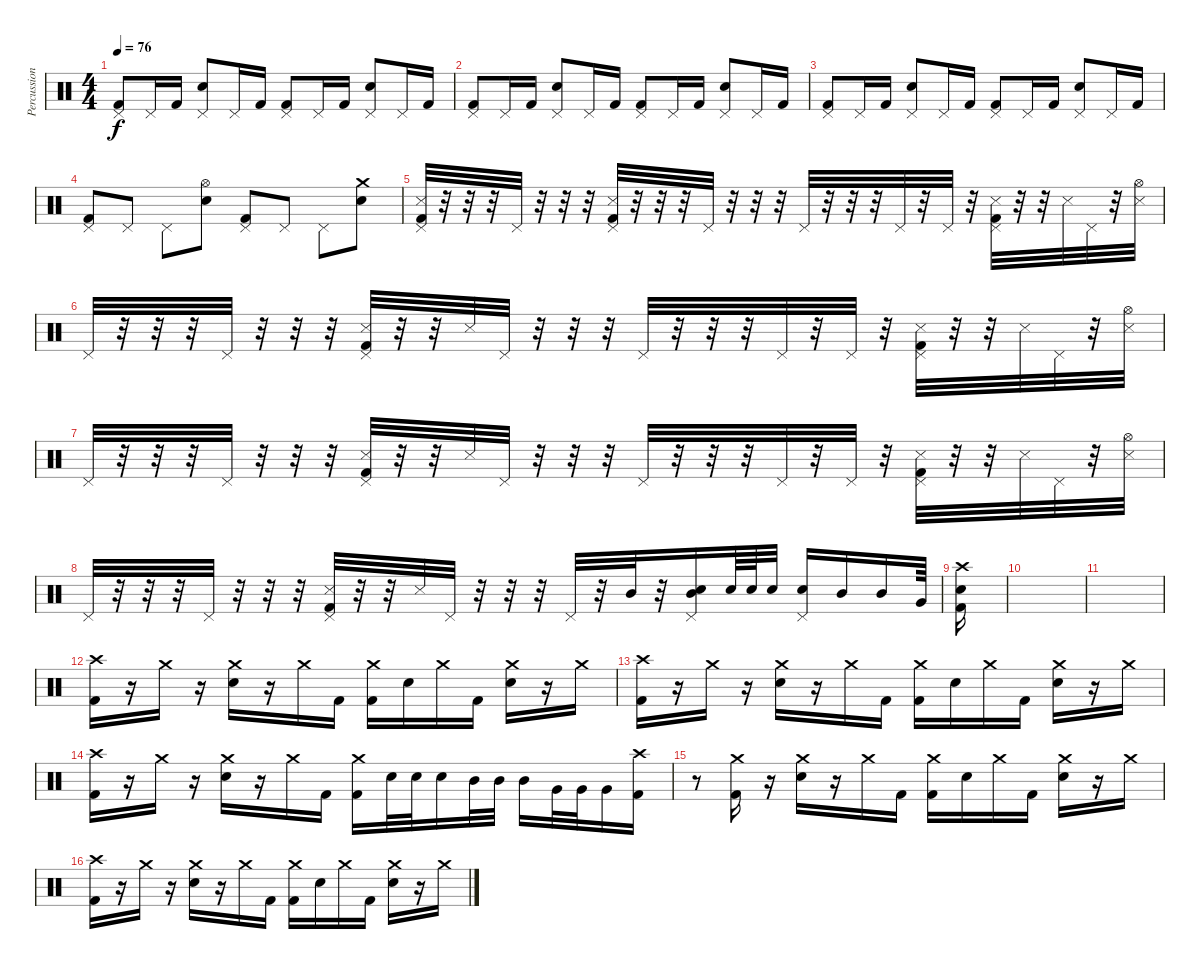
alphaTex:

\track ("Percussion" "Percussion") {instrument percussion}
\staff {score}
\articulation defaults
\ts (4 4)
\tempo 76
\clef neutral
\ks c
("Pedal Hi-Hat (hit)" "Kick (hit) 2").8{dy f} "Pedal Hi-Hat (hit)".16 "Kick (hit) 2".16 ("Pedal Hi-Hat (hit)" "Electric Snare (hit)").8 "Pedal Hi-Hat (hit)".16 "Kick (hit) 2".16 ("Pedal Hi-Hat (hit)" "Kick (hit) 2").8 "Pedal Hi-Hat (hit)".16 "Kick (hit) 2".16 ("Pedal Hi-Hat (hit)" "Electric Snare (hit)").8 "Pedal Hi-Hat (hit)".16 "Kick (hit) 2".16 |
("Pedal Hi-Hat (hit)" "Kick (hit) 2").8 "Pedal Hi-Hat (hit)".16 "Kick (hit) 2".16 ("Pedal Hi-Hat (hit)" "Electric Snare (hit)").8 "Pedal Hi-Hat (hit)".16 "Kick (hit) 2".16 ("Pedal Hi-Hat (hit)" "Kick (hit) 2").8 "Pedal Hi-Hat (hit)".16 "Kick (hit) 2".16 ("Pedal Hi-Hat (hit)" "Electric Snare (hit)").8 "Pedal Hi-Hat (hit)".16 "Kick (hit) 2".16 |
("Pedal Hi-Hat (hit)" "Kick (hit) 2").8 "Pedal Hi-Hat (hit)".16 "Kick (hit) 2".16 ("Pedal Hi-Hat (hit)" "Electric Snare (hit)").8 "Pedal Hi-Hat (hit)".16 "Kick (hit) 2".16 ("Pedal Hi-Hat (hit)" "Kick (hit) 2").8 "Pedal Hi-Hat (hit)".16 "Kick (hit) 2".16 ("Pedal Hi-Hat (hit)" "Electric Snare (hit)").8 "Pedal Hi-Hat (hit)".16 "Kick (hit) 2".16 |
("Pedal Hi-Hat (hit)" "Kick (hit) 2").8 "Pedal Hi-Hat (hit)".8 "Pedal Hi-Hat (hit)".8 ("Hi-Hat (open)" "Electric Snare (hit)").8 ("Pedal Hi-Hat (hit)" "Kick (hit) 2").8 "Pedal Hi-Hat (hit)".8 "Pedal Hi-Hat (hit)".8 ("Crash medium (hit)" "Electric Snare (hit)").8 |
("Pedal Hi-Hat (hit)" "Metronome (hit)" "Kick (hit) 2").32 r.32 r.32 r.32 "Pedal Hi-Hat (hit)".32 r.32 r.32 r.32 ("Pedal Hi-Hat (hit)" "Metronome (hit)" "Kick (hit) 2").32 r.32 r.32 r.32 "Pedal Hi-Hat (hit)".32 r.32 r.32 r.32 "Pedal Hi-Hat (hit)".32 r.32 r.32 r.32 "Pedal Hi-Hat (hit)".32 r.32 "Pedal Hi-Hat (hit)".32 r.32 ("Pedal Hi-Hat (hit)" "Metronome (hit)" "Kick (hit) 2").32 r.32 r.32 "Metronome (hit)".32 "Pedal Hi-Hat (hit)".32 r.32 ("Hi-Hat (open)" "Metronome (hit)").32 |
"Pedal Hi-Hat (hit)".32 r.32 r.32 r.32 "Pedal Hi-Hat (hit)".32 r.32 r.32 r.32 ("Pedal Hi-Hat (hit)" "Metronome (hit)" "Kick (hit) 2").32 r.32 r.32 "Metronome (hit)".32 "Pedal Hi-Hat (hit)".32 r.32 r.32 r.32 "Pedal Hi-Hat (hit)".32 r.32 r.32 r.32 "Pedal Hi-Hat (hit)".32 r.32 "Pedal Hi-Hat (hit)".32 r.32 ("Pedal Hi-Hat (hit)" "Metronome (hit)" "Kick (hit) 2").32 r.32 r.32 "Metronome (hit)".32 "Pedal Hi-Hat (hit)".32 r.32 ("Hi-Hat (open)" "Metronome (hit)").32 |
"Pedal Hi-Hat (hit)".32 r.32 r.32 r.32 "Pedal Hi-Hat (hit)".32 r.32 r.32 r.32 ("Pedal Hi-Hat (hit)" "Metronome (hit)" "Kick (hit) 2").32 r.32 r.32 "Metronome (hit)".32 "Pedal Hi-Hat (hit)".32 r.32 r.32 r.32 "Pedal Hi-Hat (hit)".32 r.32 r.32 r.32 "Pedal Hi-Hat (hit)".32 r.32 "Pedal Hi-Hat (hit)".32 r.32 ("Pedal Hi-Hat (hit)" "Metronome (hit)" "Kick (hit) 2").32 r.32 r.32 "Metronome (hit)".32 "Pedal Hi-Hat (hit)".32 r.32 ("Hi-Hat (open)" "Metronome (hit)").32 |
"Pedal Hi-Hat (hit)".32 r.32 r.32 r.32 "Pedal Hi-Hat (hit)".32 r.32 r.32 r.32 ("Pedal Hi-Hat (hit)" "Metronome (hit)" "Kick (hit) 2").32 r.32 r.32 "Metronome (hit)".32 "Pedal Hi-Hat (hit)".32 r.32 r.32 r.32 "Pedal Hi-Hat (hit)".32 r.32 "Mid Tom (hit)".32 r.32 ("Pedal Hi-Hat (hit)" "Electric Snare (hit)" "Mid Tom (hit)").16 "Electric Snare (hit)".64 "Electric Snare (hit)".64 "Electric Snare (hit)".32 ("Pedal Hi-Hat (hit)" "Electric Snare (hit)").16 "Mid Tom (hit)".16 "Mid Tom (hit)".16 "Very Low Tom (hit)".64 |
("Crash high (hit)" "Electric Snare (hit)" "Kick (hit) 2").16 |
|
|
("Crash high (hit)" "Kick (hit) 2").16{volume 16} r.16 "Crash medium (hit)".16 r.16 ("Crash medium (hit)" "Electric Snare (hit)").16 r.16 "Crash medium (hit)".16 "Kick (hit) 2".16 ("Crash medium (hit)" "Kick (hit) 2").16 "Electric Snare (hit)".16 "Crash medium (hit)".16 "Kick (hit) 2".16 ("Crash medium (hit)" "Electric Snare (hit)").16 r.16 "Crash medium (hit)".16 |
("Crash high (hit)" "Kick (hit) 2").16 r.16 "Crash medium (hit)".16 r.16 ("Crash medium (hit)" "Electric Snare (hit)").16 r.16 "Crash medium (hit)".16 "Kick (hit) 2".16 ("Crash medium (hit)" "Kick (hit) 2").16 "Electric Snare (hit)".16 "Crash medium (hit)".16 "Kick (hit) 2".16 ("Crash medium (hit)" "Electric Snare (hit)").16 r.16 "Crash medium (hit)".16 |
("Crash high (hit)" "Kick (hit) 2").16 r.16 "Crash medium (hit)".16 r.16 ("Crash medium (hit)" "Electric Snare (hit)").16 r.16 "Crash medium (hit)".16 "Kick (hit) 2".16 ("Crash medium (hit)" "Kick (hit) 2").16 "Electric Snare (hit)".32 "Electric Snare (hit)".32 "Electric Snare (hit)".16 "Mid Tom (hit)".32 "Mid Tom (hit)".32 "Mid Tom (hit)".16 "Very Low Tom (hit)".32 "Very Low Tom (hit)".32 "Very Low Tom (hit)".16 ("Crash high (hit)" "Kick (hit) 2").16 |
r.8 ("Crash medium (hit)" "Kick (hit) 2").16 r.16 ("Crash medium (hit)" "Electric Snare (hit)").16 r.16 "Crash medium (hit)".16 "Kick (hit) 2".16 ("Crash medium (hit)" "Kick (hit) 2").16 "Electric Snare (hit)".16 "Crash medium (hit)".16 "Kick (hit) 2".16 ("Crash medium (hit)" "Electric Snare (hit)").16 r.16 "Crash medium (hit)".16 |
("Crash high (hit)" "Kick (hit) 2").16 r.16 "Crash medium (hit)".16 r.16 ("Crash medium (hit)" "Electric Snare (hit)").16 r.16 "Crash medium (hit)".16 "Kick (hit) 2".16 ("Crash medium (hit)" "Kick (hit) 2").16 "Electric Snare (hit)".16 "Crash medium (hit)".16 "Kick (hit) 2".16 ("Crash medium (hit)" "Electric Snare (hit)").16 r.16 "Crash medium (hit)".16
